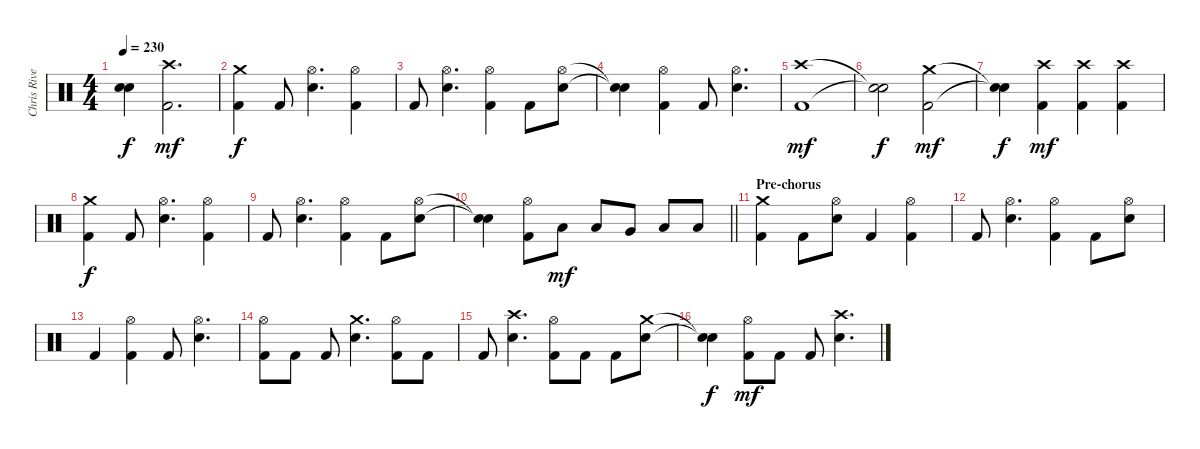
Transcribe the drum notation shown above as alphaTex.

\track ("Chris Rivers" "Chris Rive") {instrument percussion}
\staff {score}
\articulation defaults
\ts (4 4)
\tempo 230
\clef neutral
\ks c
("Snare (hit)"{t} "Snare (hit)"{t}).4{dy f} ("Crash high (hit)" "Kick (hit) 2").2{d dy mf} |
("Crash medium (hit)" "Kick (hit) 2").4{dy f} "Kick (hit) 2".8 ("Hi-Hat (open)" "Electric Snare (hit)").4{d} ("Hi-Hat (open)" "Kick (hit) 2").4 |
"Kick (hit) 2".8 ("Hi-Hat (open)" "Electric Snare (hit)").4{d} ("Hi-Hat (open)" "Kick (hit) 2").4 "Kick (hit) 2".8 ("Hi-Hat (open)" "Electric Snare (hit)").8 |
("Snare (hit)"{t} "Snare (hit)"{t}).4 ("Hi-Hat (open)" "Kick (hit) 2").4 "Kick (hit) 2".8 ("Hi-Hat (open)" "Electric Snare (hit)").4{d} |
("Crash high (hit)" "Kick (hit) 2").1{dy mf} |
("Snare (hit)"{t} "Snare (hit)"{t}).2{dy f} ("Crash medium (hit)" "Kick (hit) 2").2{dy mf} |
("Snare (hit)"{t} "Snare (hit)"{t}).4{dy f} ("Crash high (hit)" "Kick (hit) 2").4{dy mf} ("Crash high (hit)" "Kick (hit) 2").4 ("Crash high (hit)" "Kick (hit) 2").4 |
("Crash medium (hit)" "Kick (hit) 2").4{dy f} "Kick (hit) 2".8 ("Hi-Hat (open)" "Electric Snare (hit)").4{d} ("Hi-Hat (open)" "Kick (hit) 2").4 |
"Kick (hit) 2".8 ("Hi-Hat (open)" "Electric Snare (hit)").4{d} ("Hi-Hat (open)" "Kick (hit) 2").4 "Kick (hit) 2".8 ("Hi-Hat (open)" "Electric Snare (hit)").8 |
\barLineRight lightlight
("Snare (hit)"{t} "Snare (hit)"{t}).4 ("Hi-Hat (open)" "Kick (hit) 2").8 "Low Tom (hit)".8{dy mf} "Low Tom (hit)".8 "Very Low Tom (hit)".8 "Low Floor Tom (hit)".8 "Low Floor Tom (hit)".8 |
\section ("" "Pre-chorus")
("Crash medium (hit)" "Kick (hit) 2").4 "Kick (hit) 2".8 ("Hi-Hat (open)" "Electric Snare (hit)").8 "Kick (hit) 2".4 ("Hi-Hat (open)" "Kick (hit) 2").4 |
"Kick (hit) 2".8 ("Hi-Hat (open)" "Electric Snare (hit)").4{d} ("Hi-Hat (open)" "Kick (hit) 2").4 "Kick (hit) 2".8 ("Hi-Hat (open)" "Electric Snare (hit)").8 |
"Kick (hit) 2".4 ("Hi-Hat (open)" "Kick (hit) 2").4 "Kick (hit) 2".8 ("Hi-Hat (open)" "Electric Snare (hit)").4{d} |
("Hi-Hat (open)" "Kick (hit) 2").8 "Kick (hit) 2".8 "Kick (hit) 2".8 ("Crash medium (hit)" "Electric Snare (hit)").4{d} ("Hi-Hat (open)" "Kick (hit) 2").8 "Kick (hit) 2".8 |
"Kick (hit) 2".8 ("Crash high (hit)" "Electric Snare (hit)").4{d} ("Hi-Hat (open)" "Kick (hit) 2").8 "Kick (hit) 2".8 "Kick (hit) 2".8 ("Crash medium (hit)" "Electric Snare (hit)").8 |
("Snare (hit)"{t} "Snare (hit)"{t}).4{dy f} ("Hi-Hat (open)" "Kick (hit) 2").8{dy mf} "Kick (hit) 2".8 "Kick (hit) 2".8 ("Crash high (hit)" "Electric Snare (hit)").4{d}
